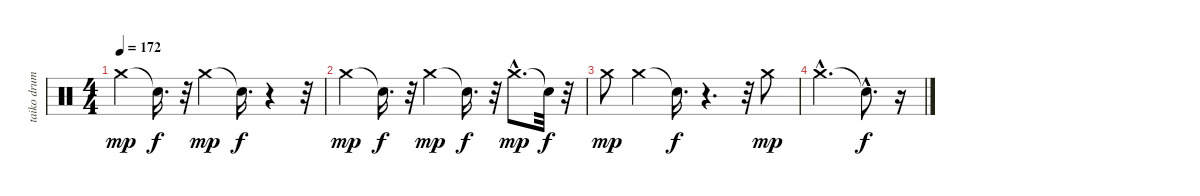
\track ("taiko drums" "taiko drum") {instrument percussion}
\staff {score}
\articulation defaults
\ts (4 4)
\tempo 172
\clef neutral
\ks c "Crash medium (hit)".4{dy mp} "Snare (hit)"{t}.16{d dy f}
r.32 "Crash medium (hit)".4{dy mp} "Snare (hit)"{t}.16{d dy f} r.4 r.32 |
"Crash medium (hit)".4{dy mp} "Snare (hit)"{t}.16{d dy f} r.32 "Crash medium (hit)".4{dy mp} "Snare (hit)"{t}.16{d dy f} r.32 "Crash medium (hit)"{hac}.8{d dy mp} "Snare (hit)"{t}.32{dy f} r.32 |
"Crash medium (hit)".8{dy mp} "Crash medium (hit)".4 "Snare (hit)"{t}.16{d dy f} r.4{d} r.32 "Crash medium (hit)".8{dy mp} |
"Crash medium (hit)"{hac}.2{d} "Snare (hit)"{hac t}.8{d dy f} r.16
